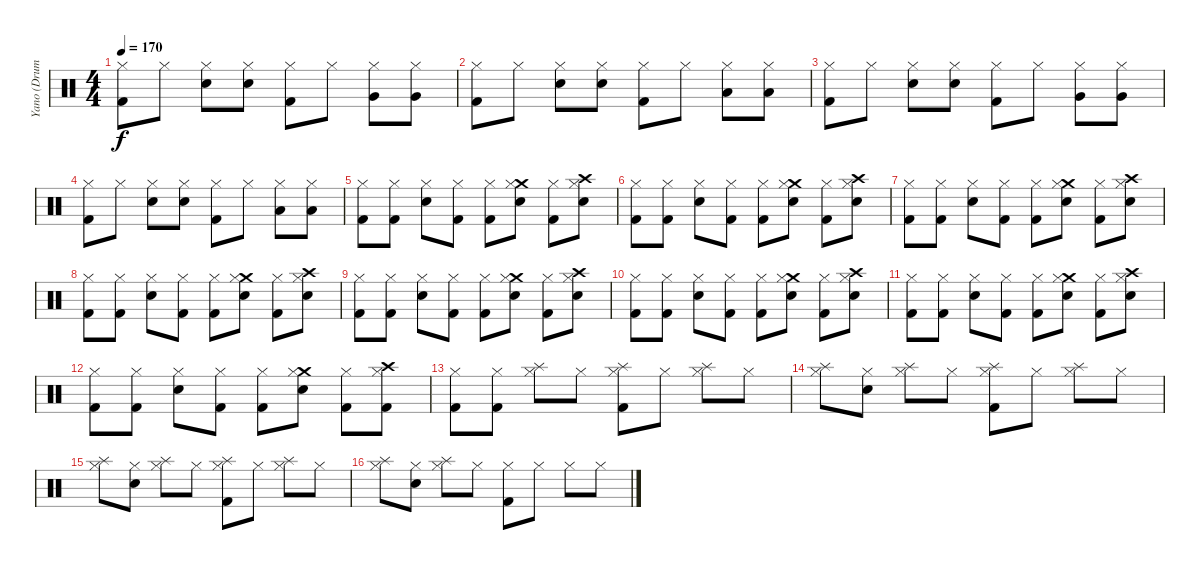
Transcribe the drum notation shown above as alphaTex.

\track ("Yano (Drums)" "Yano (Drum") {instrument percussion}
\staff {score}
\articulation defaults
\ts (4 4)
\tempo 170
\clef neutral
\ks c
("Hi-Hat (closed)" "Kick (hit) 2").8{dy f} "Hi-Hat (closed)".8 ("Hi-Hat (closed)" "Electric Snare (hit)").8 ("Hi-Hat (closed)" "Electric Snare (hit)").8 ("Hi-Hat (closed)" "Kick (hit) 2").8 "Hi-Hat (closed)".8 ("Hi-Hat (closed)" "Very Low Tom (hit)").8 ("Hi-Hat (closed)" "Very Low Tom (hit)").8 |
("Hi-Hat (closed)" "Kick (hit) 2").8 "Hi-Hat (closed)".8 ("Hi-Hat (closed)" "Electric Snare (hit)").8 ("Hi-Hat (closed)" "Electric Snare (hit)").8 ("Hi-Hat (closed)" "Kick (hit) 2").8 "Hi-Hat (closed)".8 ("Hi-Hat (closed)" "Low Tom (hit)").8 ("Hi-Hat (closed)" "Low Tom (hit)").8 |
("Hi-Hat (closed)" "Kick (hit) 2").8 "Hi-Hat (closed)".8 ("Hi-Hat (closed)" "Electric Snare (hit)").8 ("Hi-Hat (closed)" "Electric Snare (hit)").8 ("Hi-Hat (closed)" "Kick (hit) 2").8 "Hi-Hat (closed)".8 ("Hi-Hat (closed)" "Very Low Tom (hit)").8 ("Hi-Hat (closed)" "Very Low Tom (hit)").8 |
("Hi-Hat (closed)" "Kick (hit) 2").8 "Hi-Hat (closed)".8 ("Hi-Hat (closed)" "Electric Snare (hit)").8 ("Hi-Hat (closed)" "Electric Snare (hit)").8 ("Hi-Hat (closed)" "Kick (hit) 2").8 "Hi-Hat (closed)".8 ("Hi-Hat (closed)" "Low Tom (hit)").8 ("Hi-Hat (closed)" "Low Tom (hit)").8 |
("Hi-Hat (closed)" "Kick (hit) 2").8 ("Hi-Hat (closed)" "Kick (hit) 2").8 ("Hi-Hat (closed)" "Electric Snare (hit)").8 ("Hi-Hat (closed)" "Kick (hit) 2").8 ("Hi-Hat (closed)" "Kick (hit) 2").8 ("Crash medium (hit)" "Hi-Hat (closed)" "Electric Snare (hit)").8 ("Hi-Hat (closed)" "Kick (hit) 2").8 ("Crash high (hit)" "Hi-Hat (closed)" "Electric Snare (hit)").8 |
("Hi-Hat (closed)" "Kick (hit) 2").8 ("Hi-Hat (closed)" "Kick (hit) 2").8 ("Hi-Hat (closed)" "Electric Snare (hit)").8 ("Hi-Hat (closed)" "Kick (hit) 2").8 ("Hi-Hat (closed)" "Kick (hit) 2").8 ("Crash medium (hit)" "Hi-Hat (closed)" "Electric Snare (hit)").8 ("Hi-Hat (closed)" "Kick (hit) 2").8 ("Crash high (hit)" "Hi-Hat (closed)" "Electric Snare (hit)").8 |
("Hi-Hat (closed)" "Kick (hit) 2").8 ("Hi-Hat (closed)" "Kick (hit) 2").8 ("Hi-Hat (closed)" "Electric Snare (hit)").8 ("Hi-Hat (closed)" "Kick (hit) 2").8 ("Hi-Hat (closed)" "Kick (hit) 2").8 ("Crash medium (hit)" "Hi-Hat (closed)" "Electric Snare (hit)").8 ("Hi-Hat (closed)" "Kick (hit) 2").8 ("Crash high (hit)" "Hi-Hat (closed)" "Electric Snare (hit)").8 |
("Hi-Hat (closed)" "Kick (hit) 2").8 ("Hi-Hat (closed)" "Kick (hit) 2").8 ("Hi-Hat (closed)" "Electric Snare (hit)").8 ("Hi-Hat (closed)" "Kick (hit) 2").8 ("Hi-Hat (closed)" "Kick (hit) 2").8 ("Crash medium (hit)" "Hi-Hat (closed)" "Electric Snare (hit)").8 ("Hi-Hat (closed)" "Kick (hit) 2").8 ("Crash high (hit)" "Hi-Hat (closed)" "Electric Snare (hit)").8 |
("Hi-Hat (closed)" "Kick (hit) 2").8 ("Hi-Hat (closed)" "Kick (hit) 2").8 ("Hi-Hat (closed)" "Electric Snare (hit)").8 ("Hi-Hat (closed)" "Kick (hit) 2").8 ("Hi-Hat (closed)" "Kick (hit) 2").8 ("Crash medium (hit)" "Hi-Hat (closed)" "Electric Snare (hit)").8 ("Hi-Hat (closed)" "Kick (hit) 2").8 ("Crash high (hit)" "Hi-Hat (closed)" "Electric Snare (hit)").8 |
("Hi-Hat (closed)" "Kick (hit) 2").8 ("Hi-Hat (closed)" "Kick (hit) 2").8 ("Hi-Hat (closed)" "Electric Snare (hit)").8 ("Hi-Hat (closed)" "Kick (hit) 2").8 ("Hi-Hat (closed)" "Kick (hit) 2").8 ("Crash medium (hit)" "Hi-Hat (closed)" "Electric Snare (hit)").8 ("Hi-Hat (closed)" "Kick (hit) 2").8 ("Crash high (hit)" "Hi-Hat (closed)" "Electric Snare (hit)").8 |
("Hi-Hat (closed)" "Kick (hit) 2").8 ("Hi-Hat (closed)" "Kick (hit) 2").8 ("Hi-Hat (closed)" "Electric Snare (hit)").8 ("Hi-Hat (closed)" "Kick (hit) 2").8 ("Hi-Hat (closed)" "Kick (hit) 2").8 ("Crash medium (hit)" "Hi-Hat (closed)" "Electric Snare (hit)").8 ("Hi-Hat (closed)" "Kick (hit) 2").8 ("Crash high (hit)" "Hi-Hat (closed)" "Electric Snare (hit)").8 |
("Hi-Hat (closed)" "Kick (hit) 2").8 ("Hi-Hat (closed)" "Kick (hit) 2").8 ("Hi-Hat (closed)" "Electric Snare (hit)").8 ("Hi-Hat (closed)" "Kick (hit) 2").8 ("Hi-Hat (closed)" "Kick (hit) 2").8 ("Crash medium (hit)" "Hi-Hat (closed)" "Electric Snare (hit)").8 ("Hi-Hat (closed)" "Kick (hit) 2").8 ("Crash high (hit)" "Hi-Hat (closed)" "Kick (hit) 2").8 |
("Hi-Hat (closed)" "Kick (hit) 2").8 ("Hi-Hat (closed)" "Kick (hit) 2").8 ("Splash (hit)" "Hi-Hat (closed)").8 "Hi-Hat (closed)".8 ("Splash (hit)" "Hi-Hat (closed)" "Kick (hit) 2").8 "Hi-Hat (closed)".8 ("Splash (hit)" "Hi-Hat (closed)").8 "Hi-Hat (closed)".8 |
("Splash (hit)" "Hi-Hat (closed)").8 ("Hi-Hat (closed)" "Electric Snare (hit)").8 ("Splash (hit)" "Hi-Hat (closed)").8 "Hi-Hat (closed)".8 ("Splash (hit)" "Hi-Hat (closed)" "Kick (hit) 2").8 "Hi-Hat (closed)".8 ("Splash (hit)" "Hi-Hat (closed)").8 "Hi-Hat (closed)".8 |
("Splash (hit)" "Hi-Hat (closed)").8 ("Hi-Hat (closed)" "Electric Snare (hit)").8 ("Splash (hit)" "Hi-Hat (closed)").8 "Hi-Hat (closed)".8 ("Splash (hit)" "Hi-Hat (closed)" "Kick (hit) 2").8 "Hi-Hat (closed)".8 ("Splash (hit)" "Hi-Hat (closed)").8 "Hi-Hat (closed)".8 |
("Splash (hit)" "Hi-Hat (closed)").8 ("Hi-Hat (closed)" "Electric Snare (hit)").8 ("Splash (hit)" "Hi-Hat (closed)").8 "Hi-Hat (closed)".8 ("Hi-Hat (closed)" "Kick (hit) 2").8 "Hi-Hat (closed)".8 "Hi-Hat (closed)".8 "Hi-Hat (closed)".8
